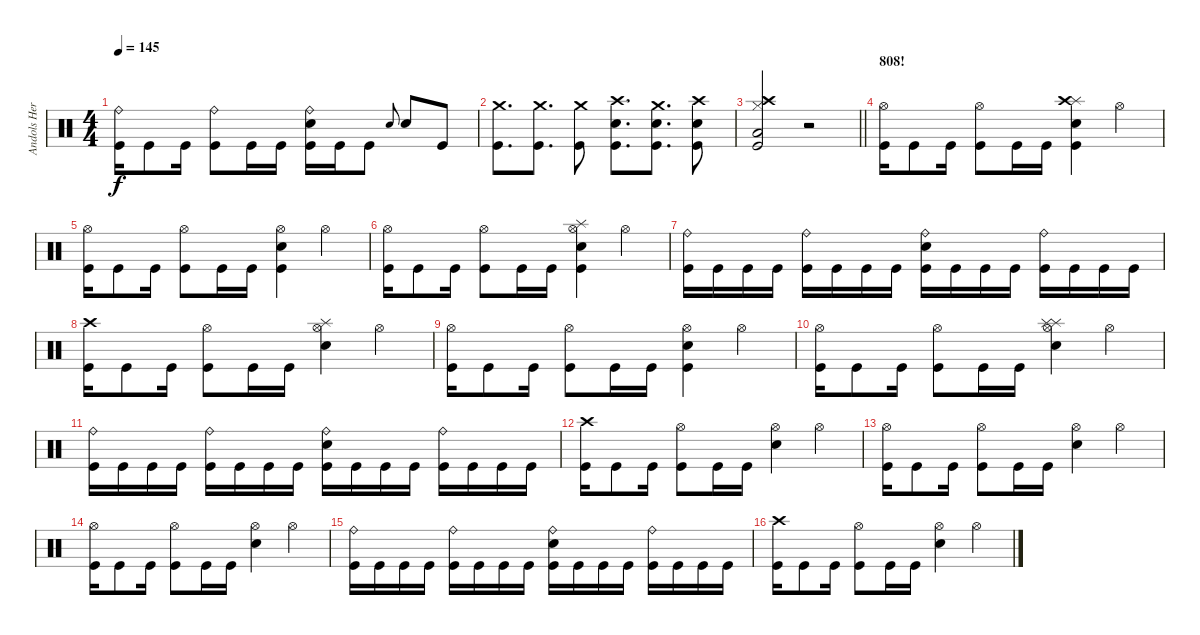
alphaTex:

\track ("Andols Herrick" "Andols Her") {instrument percussion}
\staff
\articulation defaults
\ts (4 4)
\tempo 145
\clef neutral
\ks c
("Ride (bell)" "Kick (hit)").16{dy f} "Kick (hit)".8 "Kick (hit)".16 ("Ride (bell)" "Kick (hit)").8 "Kick (hit)".16 "Kick (hit)".16 ("Ride (bell)" "Electric Snare (hit)" "Kick (hit)").16 "Kick (hit)".16 "Kick (hit)".8 "Electric Snare (hit)".8{gr onbeat} "Electric Snare (hit)".8 "Kick (hit)".8 |
("Crash medium (hit)" "Kick (hit)").8{d} ("Crash medium (hit)" "Kick (hit)").8{d} ("Crash medium (hit)" "Kick (hit)").8 ("Crash high (hit)" "Electric Snare (hit)" "Kick (hit)").8{d} ("Crash medium (hit)" "Electric Snare (hit)" "Kick (hit)").8{d} ("Crash high (hit)" "Electric Snare (hit)" "Kick (hit)").8 |
\barLineRight lightlight
("Hi-Hat (closed)" "Crash high (hit)" "Low Floor Tom (hit)" "Kick (hit)").2 r.2 |
\section ("" "808!")
("Hi-Hat (open)" "Kick (hit)").16 "Kick (hit)".8 "Kick (hit)".16 ("Hi-Hat (open)" "Kick (hit)").8 "Kick (hit)".16 "Kick (hit)".16 ("Splash (hit)" "Crash high (hit)" "Electric Snare (hit)" "Kick (hit)").4 "Hi-Hat (open)".4 |
("Hi-Hat (open)" "Kick (hit)").16 "Kick (hit)".8 "Kick (hit)".16 ("Hi-Hat (open)" "Kick (hit)").8 "Kick (hit)".16 "Kick (hit)".16 ("Hi-Hat (open)" "Electric Snare (hit)" "Kick (hit)").4 "Hi-Hat (open)".4 |
("Hi-Hat (open)" "Kick (hit)").16 "Kick (hit)".8 "Kick (hit)".16 ("Hi-Hat (open)" "Kick (hit)").8 "Kick (hit)".16 "Kick (hit)".16 ("Splash (hit)" "Hi-Hat (open)" "Electric Snare (hit)" "Kick (hit)").4 "Hi-Hat (open)".4 |
("Ride (bell)" "Kick (hit)").16 "Kick (hit)".16 "Kick (hit)".16 "Kick (hit)".16 ("Ride (bell)" "Kick (hit)").16 "Kick (hit)".16 "Kick (hit)".16 "Kick (hit)".16 ("Ride (bell)" "Electric Snare (hit)" "Kick (hit)").16 "Kick (hit)".16 "Kick (hit)".16 "Kick (hit)".16 ("Ride (bell)" "Kick (hit)").16 "Kick (hit)".16 "Kick (hit)".16 "Kick (hit)".16 |
("Crash high (hit)" "Kick (hit)").16 "Kick (hit)".8 "Kick (hit)".16 ("Hi-Hat (open)" "Kick (hit)").8 "Kick (hit)".16 "Kick (hit)".16 ("Splash (hit)" "Hi-Hat (open)" "Electric Snare (hit)").4 "Hi-Hat (open)".4 |
("Hi-Hat (open)" "Kick (hit)").16 "Kick (hit)".8 "Kick (hit)".16 ("Hi-Hat (open)" "Kick (hit)").8 "Kick (hit)".16 "Kick (hit)".16 ("Hi-Hat (open)" "Electric Snare (hit)" "Kick (hit)").4 "Hi-Hat (open)".4 |
("Hi-Hat (open)" "Kick (hit)").16 "Kick (hit)".8 "Kick (hit)".16 ("Hi-Hat (open)" "Kick (hit)").8 "Kick (hit)".16 "Kick (hit)".16 ("Splash (hit)" "Splash (hit)" "Hi-Hat (open)" "Electric Snare (hit)").4 "Hi-Hat (open)".4 |
("Ride (bell)" "Kick (hit)").16 "Kick (hit)".16 "Kick (hit)".16 "Kick (hit)".16 ("Ride (bell)" "Kick (hit)").16 "Kick (hit)".16 "Kick (hit)".16 "Kick (hit)".16 ("Ride (bell)" "Electric Snare (hit)" "Kick (hit)").16 "Kick (hit)".16 "Kick (hit)".16 "Kick (hit)".16 ("Ride (bell)" "Kick (hit)").16 "Kick (hit)".16 "Kick (hit)".16 "Kick (hit)".16 |
("Crash high (hit)" "Kick (hit)").16 "Kick (hit)".8 "Kick (hit)".16 ("Hi-Hat (open)" "Kick (hit)").8 "Kick (hit)".16 "Kick (hit)".16 ("Hi-Hat (open)" "Electric Snare (hit)").4 "Hi-Hat (open)".4 |
("Hi-Hat (open)" "Kick (hit)").16 "Kick (hit)".8 "Kick (hit)".16 ("Hi-Hat (open)" "Kick (hit)").8 "Kick (hit)".16 "Kick (hit)".16 ("Hi-Hat (open)" "Electric Snare (hit)").4 "Hi-Hat (open)".4 |
("Hi-Hat (open)" "Kick (hit)").16 "Kick (hit)".8 "Kick (hit)".16 ("Hi-Hat (open)" "Kick (hit)").8 "Kick (hit)".16 "Kick (hit)".16 ("Hi-Hat (open)" "Electric Snare (hit)").4 "Hi-Hat (open)".4 |
("Ride (bell)" "Kick (hit)").16 "Kick (hit)".16 "Kick (hit)".16 "Kick (hit)".16 ("Ride (bell)" "Kick (hit)").16 "Kick (hit)".16 "Kick (hit)".16 "Kick (hit)".16 ("Ride (bell)" "Electric Snare (hit)" "Kick (hit)").16 "Kick (hit)".16 "Kick (hit)".16 "Kick (hit)".16 ("Ride (bell)" "Kick (hit)").16 "Kick (hit)".16 "Kick (hit)".16 "Kick (hit)".16 |
("Crash high (hit)" "Kick (hit)").16 "Kick (hit)".8 "Kick (hit)".16 ("Hi-Hat (open)" "Kick (hit)").8 "Kick (hit)".16 "Kick (hit)".16 ("Hi-Hat (open)" "Electric Snare (hit)").4 "Hi-Hat (open)".4
